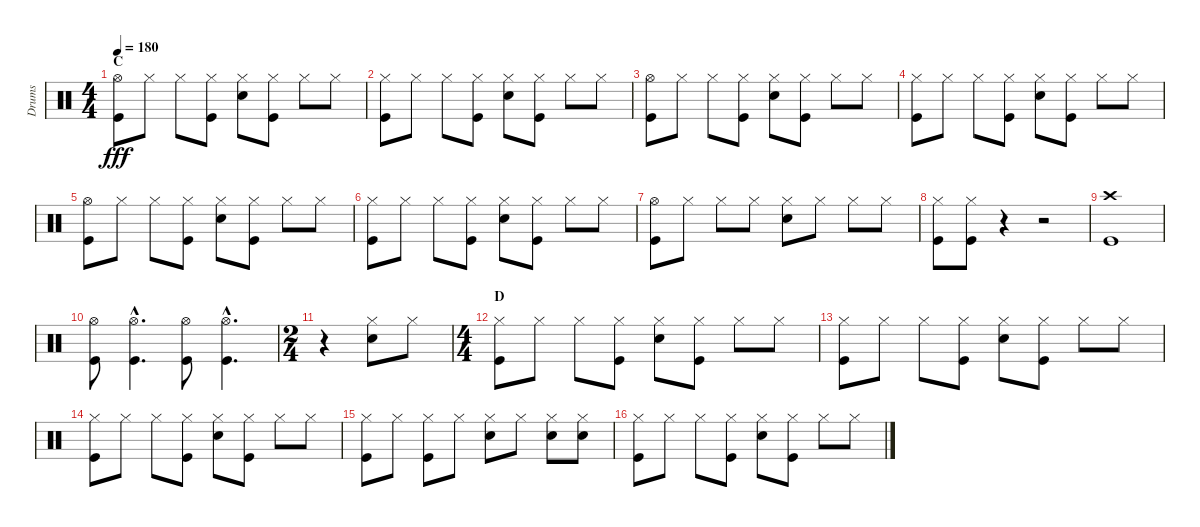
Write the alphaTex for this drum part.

\track ("Drums" "Drums") {instrument percussion}
\staff {score}
\articulation defaults
\ts (4 4)
\section ("" "C")
\tempo 180
\clef neutral
\ks c
("Hi-Hat (open)" "Kick (hit)").8{dy fff} "Hi-Hat (closed)".8 "Hi-Hat (closed)".8 ("Hi-Hat (closed)" "Kick (hit)").8 ("Hi-Hat (closed)" "Snare (hit) 2").8 ("Hi-Hat (closed)" "Kick (hit)").8 "Hi-Hat (closed)".8 "Hi-Hat (closed)".8 |
("Hi-Hat (closed)" "Kick (hit)").8 "Hi-Hat (closed)".8 "Hi-Hat (closed)".8 ("Hi-Hat (closed)" "Kick (hit)").8 ("Hi-Hat (closed)" "Snare (hit) 2").8 ("Hi-Hat (closed)" "Kick (hit)").8 "Hi-Hat (closed)".8 "Hi-Hat (closed)".8 |
("Hi-Hat (open)" "Kick (hit)").8 "Hi-Hat (closed)".8 "Hi-Hat (closed)".8 ("Hi-Hat (closed)" "Kick (hit)").8 ("Hi-Hat (closed)" "Snare (hit) 2").8 ("Hi-Hat (closed)" "Kick (hit)").8 "Hi-Hat (closed)".8 "Hi-Hat (closed)".8 |
("Hi-Hat (closed)" "Kick (hit)").8 "Hi-Hat (closed)".8 "Hi-Hat (closed)".8 ("Hi-Hat (closed)" "Kick (hit)").8 ("Hi-Hat (closed)" "Snare (hit) 2").8 ("Hi-Hat (closed)" "Kick (hit)").8 "Hi-Hat (closed)".8 "Hi-Hat (closed)".8 |
("Hi-Hat (open)" "Kick (hit)").8 "Hi-Hat (closed)".8 "Hi-Hat (closed)".8 ("Hi-Hat (closed)" "Kick (hit)").8 ("Hi-Hat (closed)" "Snare (hit) 2").8 ("Hi-Hat (closed)" "Kick (hit)").8 "Hi-Hat (closed)".8 "Hi-Hat (closed)".8 |
("Hi-Hat (closed)" "Kick (hit)").8 "Hi-Hat (closed)".8 "Hi-Hat (closed)".8 ("Hi-Hat (closed)" "Kick (hit)").8 ("Hi-Hat (closed)" "Snare (hit) 2").8 ("Hi-Hat (closed)" "Kick (hit)").8 "Hi-Hat (closed)".8 "Hi-Hat (closed)".8 |
("Hi-Hat (open)" "Kick (hit)").8 "Hi-Hat (closed)".8 "Hi-Hat (closed)".8 "Hi-Hat (closed)".8 ("Hi-Hat (closed)" "Snare (hit) 2").8 "Hi-Hat (closed)".8 "Hi-Hat (closed)".8 "Hi-Hat (closed)".8 |
("Hi-Hat (closed)" "Kick (hit)").8 ("Hi-Hat (closed)" "Kick (hit)").8 r.4 r.2 |
("Crash high (hit)" "Kick (hit)").1 |
("Hi-Hat (open)" "Kick (hit)").8 ("Hi-Hat (open)"{hac} "Kick (hit)"{hac}).4{d} ("Hi-Hat (open)" "Kick (hit)").8 ("Hi-Hat (open)"{hac} "Kick (hit)"{hac}).4{d} |
\ts (2 4)
r.4 ("Hi-Hat (closed)" "Snare (hit) 2").8 "Hi-Hat (closed)".8 |
\ts (4 4)
\section ("" "D")
("Hi-Hat (closed)" "Kick (hit)").8 "Hi-Hat (closed)".8 "Hi-Hat (closed)".8 ("Hi-Hat (closed)" "Kick (hit)").8 ("Hi-Hat (closed)" "Snare (hit) 2").8 ("Hi-Hat (closed)" "Kick (hit)").8 "Hi-Hat (closed)".8 "Hi-Hat (closed)".8 |
("Hi-Hat (closed)" "Kick (hit)").8 "Hi-Hat (closed)".8 "Hi-Hat (closed)".8 ("Hi-Hat (closed)" "Kick (hit)").8 ("Hi-Hat (closed)" "Snare (hit) 2").8 ("Hi-Hat (closed)" "Kick (hit)").8 "Hi-Hat (closed)".8 "Hi-Hat (closed)".8 |
("Hi-Hat (closed)" "Kick (hit)").8 "Hi-Hat (closed)".8 "Hi-Hat (closed)".8 ("Hi-Hat (closed)" "Kick (hit)").8 ("Hi-Hat (closed)" "Snare (hit) 2").8 ("Hi-Hat (closed)" "Kick (hit)").8 "Hi-Hat (closed)".8 "Hi-Hat (closed)".8 |
("Hi-Hat (closed)" "Kick (hit)").8 "Hi-Hat (closed)".8 ("Hi-Hat (closed)" "Kick (hit)").8 "Hi-Hat (closed)".8 ("Hi-Hat (closed)" "Snare (hit) 2").8 "Hi-Hat (closed)".8 ("Hi-Hat (closed)" "Snare (hit) 2").8 ("Hi-Hat (closed)" "Snare (hit) 2").8 |
("Hi-Hat (closed)" "Kick (hit)").8 "Hi-Hat (closed)".8 "Hi-Hat (closed)".8 ("Hi-Hat (closed)" "Kick (hit)").8 ("Hi-Hat (closed)" "Snare (hit) 2").8 ("Hi-Hat (closed)" "Kick (hit)").8 "Hi-Hat (closed)".8 "Hi-Hat (closed)".8
